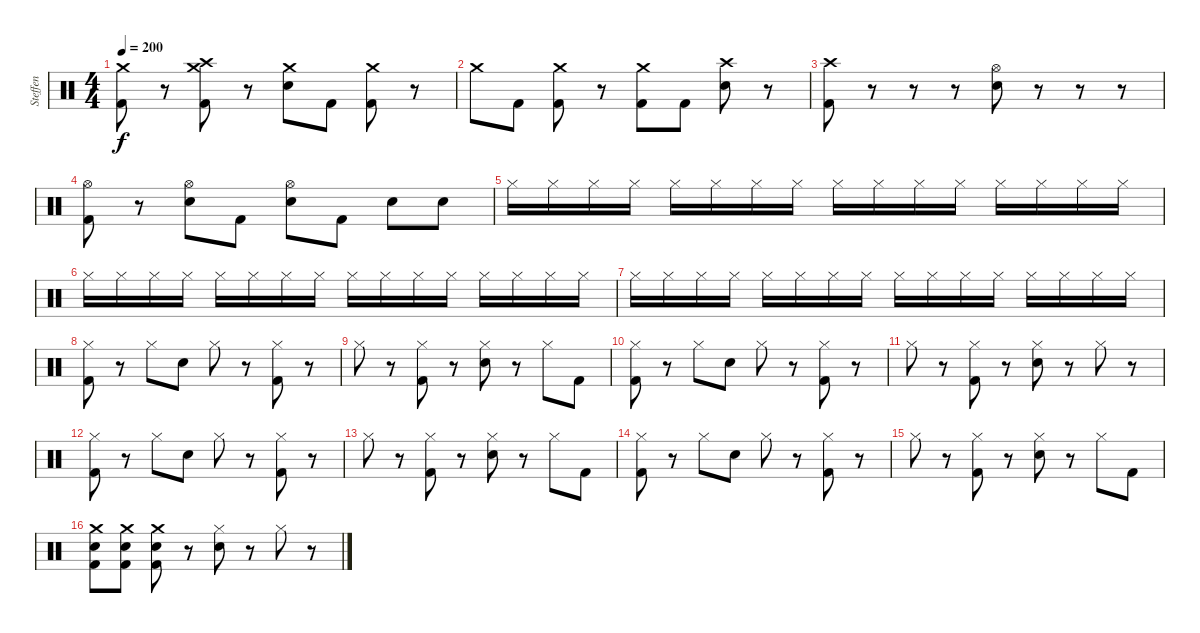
\track ("Steffen" "Steffen") {instrument percussion}
\staff {score}
\articulation defaults
\ts (4 4)
\tempo 200
\clef neutral
\ks c
("Crash medium (hit)" "Kick (hit) 2").8{dy f} r.8 ("Crash high (hit)" "Crash medium (hit)" "Kick (hit) 2").8 r.8 ("Crash medium (hit)" "Snare (hit) 2").8 "Kick (hit) 2".8 ("Crash medium (hit)" "Kick (hit) 2").8 r.8 |
"Crash medium (hit)".8 "Kick (hit) 2".8 ("Crash medium (hit)" "Kick (hit) 2").8 r.8 ("Crash medium (hit)" "Kick (hit) 2").8 "Kick (hit) 2".8 ("Crash high (hit)" "Snare (hit) 2").8 r.8 |
("Crash high (hit)" "Kick (hit) 2").8 r.8 r.8 r.8 ("Hi-Hat (open)" "Snare (hit) 2").8 r.8 r.8 r.8 |
("Hi-Hat (open)" "Kick (hit) 2").8 r.8 ("Hi-Hat (open)" "Snare (hit) 2").8 "Kick (hit) 2".8 ("Hi-Hat (open)" "Snare (hit) 2").8 "Kick (hit) 2".8 "Snare (hit) 2".8 "Snare (hit) 2".8 |
"Hi-Hat (closed)".16 "Hi-Hat (closed)".16 "Hi-Hat (closed)".16 "Hi-Hat (closed)".16 "Hi-Hat (closed)".16 "Hi-Hat (closed)".16 "Hi-Hat (closed)".16 "Hi-Hat (closed)".16 "Hi-Hat (closed)".16 "Hi-Hat (closed)".16 "Hi-Hat (closed)".16 "Hi-Hat (closed)".16 "Hi-Hat (closed)".16 "Hi-Hat (closed)".16 "Hi-Hat (closed)".16 "Hi-Hat (closed)".16 |
"Hi-Hat (closed)".16 "Hi-Hat (closed)".16 "Hi-Hat (closed)".16 "Hi-Hat (closed)".16 "Hi-Hat (closed)".16 "Hi-Hat (closed)".16 "Hi-Hat (closed)".16 "Hi-Hat (closed)".16 "Hi-Hat (closed)".16 "Hi-Hat (closed)".16 "Hi-Hat (closed)".16 "Hi-Hat (closed)".16 "Hi-Hat (closed)".16 "Hi-Hat (closed)".16 "Hi-Hat (closed)".16 "Hi-Hat (closed)".16 |
"Hi-Hat (closed)".16 "Hi-Hat (closed)".16 "Hi-Hat (closed)".16 "Hi-Hat (closed)".16 "Hi-Hat (closed)".16 "Hi-Hat (closed)".16 "Hi-Hat (closed)".16 "Hi-Hat (closed)".16 "Hi-Hat (closed)".16 "Hi-Hat (closed)".16 "Hi-Hat (closed)".16 "Hi-Hat (closed)".16 "Hi-Hat (closed)".16 "Hi-Hat (closed)".16 "Hi-Hat (closed)".16 "Hi-Hat (closed)".16 |
("Hi-Hat (closed)" "Kick (hit) 2").8 r.8 "Hi-Hat (closed)".8 "Snare (hit) 2".8 "Hi-Hat (closed)".8 r.8 ("Hi-Hat (closed)" "Kick (hit) 2").8 r.8 |
"Hi-Hat (closed)".8 r.8 ("Hi-Hat (closed)" "Kick (hit) 2").8 r.8 ("Hi-Hat (closed)" "Snare (hit) 2").8 r.8 "Hi-Hat (closed)".8 "Kick (hit) 2".8 |
("Hi-Hat (closed)" "Kick (hit) 2").8 r.8 "Hi-Hat (closed)".8 "Snare (hit) 2".8 "Hi-Hat (closed)".8 r.8 ("Hi-Hat (closed)" "Kick (hit) 2").8 r.8 |
"Hi-Hat (closed)".8 r.8 ("Hi-Hat (closed)" "Kick (hit) 2").8 r.8 ("Hi-Hat (closed)" "Snare (hit) 2").8 r.8 "Hi-Hat (closed)".8 r.8 |
("Hi-Hat (closed)" "Kick (hit) 2").8 r.8 "Hi-Hat (closed)".8 "Snare (hit) 2".8 "Hi-Hat (closed)".8 r.8 ("Hi-Hat (closed)" "Kick (hit) 2").8 r.8 |
"Hi-Hat (closed)".8 r.8 ("Hi-Hat (closed)" "Kick (hit) 2").8 r.8 ("Hi-Hat (closed)" "Snare (hit) 2").8 r.8 "Hi-Hat (closed)".8 "Kick (hit) 2".8 |
("Hi-Hat (closed)" "Kick (hit) 2").8 r.8 "Hi-Hat (closed)".8 "Snare (hit) 2".8 "Hi-Hat (closed)".8 r.8 ("Hi-Hat (closed)" "Kick (hit) 2").8 r.8 |
"Hi-Hat (closed)".8 r.8 ("Hi-Hat (closed)" "Kick (hit) 2").8 r.8 ("Hi-Hat (closed)" "Snare (hit) 2").8 r.8 "Hi-Hat (closed)".8 "Kick (hit) 2".8 |
("Crash medium (hit)" "Snare (hit) 2" "Kick (hit) 2").8 ("Crash medium (hit)" "Snare (hit) 2" "Kick (hit) 2").8 ("Crash medium (hit)" "Snare (hit) 2" "Kick (hit) 2").8 r.8 ("Hi-Hat (closed)" "Snare (hit) 2").8 r.8 "Hi-Hat (closed)".8 r.8
